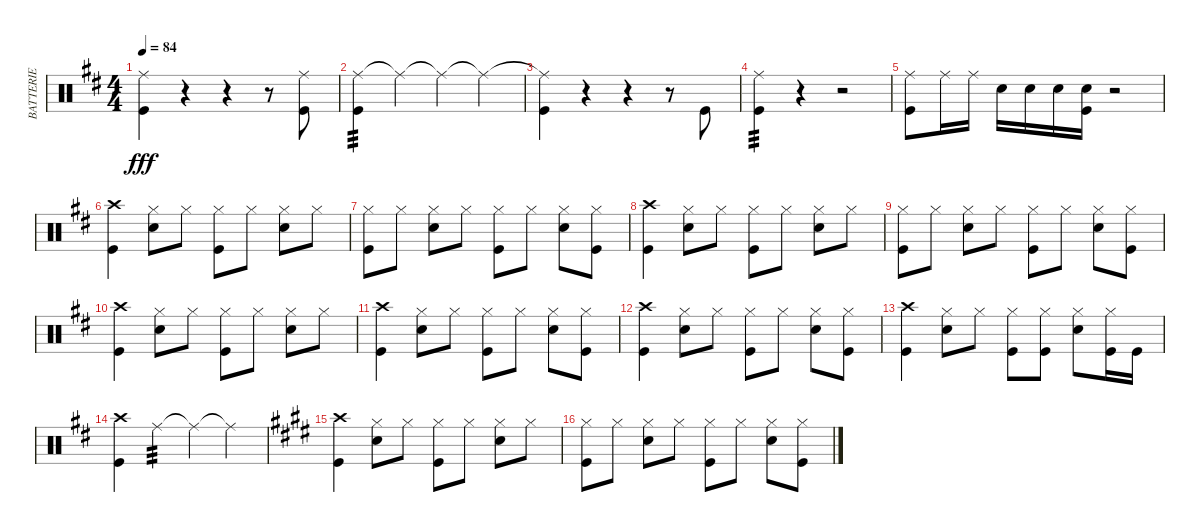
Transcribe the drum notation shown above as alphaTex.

\track ("BATTERIE" "BATTERIE") {instrument percussion}
\staff {score}
\articulation defaults
\ts (4 4)
\tempo 84
\clef neutral
\ks d
("Ride (middle)" "Kick (hit)").4{dy fff} r.4 r.4 r.8 ("Ride (middle)" "Kick (hit)").8 |
("Ride (middle)" "Kick (hit)").4{tp 3} "Ride (middle)"{t}.4 "Ride (middle)"{t}.4 "Ride (middle)"{t}.4 |
("Ride (middle)"{t} "Kick (hit)").4 r.4 r.4 r.8 "Kick (hit)".8{beam Down} |
("Ride (middle)" "Kick (hit)").4{tp 3} r.4 r.2 |
("Ride (middle)" "Kick (hit)").8 "Ride (middle)".16 "Ride (middle)".16 "Snare (hit) 2".16{beam Down} "Snare (hit) 2".16{beam Down} "Snare (hit) 2".16{beam Down} ("Snare (hit) 2" "Kick (hit)").16{beam Down} r.2 |
("Crash high (hit)" "Kick (hit)").4 ("Hi-Hat (closed)" "Snare (hit) 2").8 "Hi-Hat (closed)".8 ("Hi-Hat (closed)" "Kick (hit)").8 "Hi-Hat (closed)".8 ("Hi-Hat (closed)" "Snare (hit) 2").8 "Hi-Hat (closed)".8 |
("Hi-Hat (closed)" "Kick (hit)").8 "Hi-Hat (closed)".8 ("Hi-Hat (closed)" "Snare (hit) 2").8 "Hi-Hat (closed)".8 ("Hi-Hat (closed)" "Kick (hit)").8 "Hi-Hat (closed)".8 ("Hi-Hat (closed)" "Snare (hit) 2").8 ("Hi-Hat (closed)" "Kick (hit)").8 |
("Crash high (hit)" "Kick (hit)").4 ("Hi-Hat (closed)" "Snare (hit) 2").8 "Hi-Hat (closed)".8 ("Hi-Hat (closed)" "Kick (hit)").8 "Hi-Hat (closed)".8 ("Hi-Hat (closed)" "Snare (hit) 2").8 "Hi-Hat (closed)".8 |
("Hi-Hat (closed)" "Kick (hit)").8 "Hi-Hat (closed)".8 ("Hi-Hat (closed)" "Snare (hit) 2").8 "Hi-Hat (closed)".8 ("Hi-Hat (closed)" "Kick (hit)").8 "Hi-Hat (closed)".8 ("Hi-Hat (closed)" "Snare (hit) 2").8 ("Hi-Hat (closed)" "Kick (hit)").8 |
("Crash high (hit)" "Kick (hit)").4 ("Hi-Hat (closed)" "Snare (hit) 2").8 "Hi-Hat (closed)".8 ("Hi-Hat (closed)" "Kick (hit)").8 "Hi-Hat (closed)".8 ("Hi-Hat (closed)" "Snare (hit) 2").8 "Hi-Hat (closed)".8 |
("Crash high (hit)" "Kick (hit)").4 ("Hi-Hat (closed)" "Snare (hit) 2").8 "Hi-Hat (closed)".8 ("Hi-Hat (closed)" "Kick (hit)").8 "Hi-Hat (closed)".8 ("Hi-Hat (closed)" "Snare (hit) 2").8 ("Hi-Hat (closed)" "Kick (hit)").8 |
("Crash high (hit)" "Kick (hit)").4 ("Hi-Hat (closed)" "Snare (hit) 2").8 "Hi-Hat (closed)".8 ("Hi-Hat (closed)" "Kick (hit)").8 "Hi-Hat (closed)".8 ("Hi-Hat (closed)" "Snare (hit) 2").8 ("Hi-Hat (closed)" "Kick (hit)").8 |
("Crash high (hit)" "Kick (hit)").4 ("Hi-Hat (closed)" "Snare (hit) 2").8 "Hi-Hat (closed)".8 ("Hi-Hat (closed)" "Kick (hit)").8 ("Hi-Hat (closed)" "Kick (hit)").8 ("Hi-Hat (closed)" "Snare (hit) 2").8 ("Hi-Hat (closed)" "Kick (hit)").16 "Kick (hit)".16 |
("Crash high (hit)" "Kick (hit)").4 "Ride (middle)".4{tp 3} "Ride (middle)"{t}.4 "Ride (middle)"{t}.4 |
\ks e
("Crash high (hit)" "Kick (hit)").4 ("Hi-Hat (closed)" "Snare (hit) 2").8 "Hi-Hat (closed)".8 ("Hi-Hat (closed)" "Kick (hit)").8 "Hi-Hat (closed)".8 ("Hi-Hat (closed)" "Snare (hit) 2").8 "Hi-Hat (closed)".8 |
("Hi-Hat (closed)" "Kick (hit)").8 "Hi-Hat (closed)".8 ("Hi-Hat (closed)" "Snare (hit) 2").8 "Hi-Hat (closed)".8 ("Hi-Hat (closed)" "Kick (hit)").8 "Hi-Hat (closed)".8 ("Hi-Hat (closed)" "Snare (hit) 2").8 ("Hi-Hat (closed)" "Kick (hit)").8
